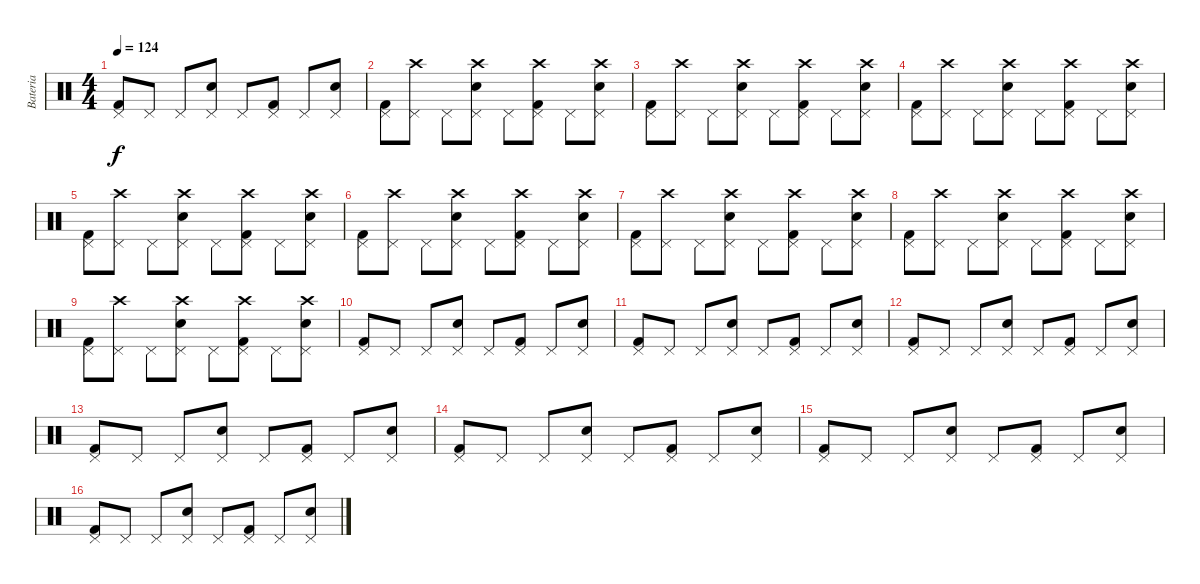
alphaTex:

\track ("Bateria" "Bateria") {instrument percussion}
\staff {score}
\articulation defaults
\ts (4 4)
\tempo 124
\clef neutral
\ks c
("Pedal Hi-Hat (hit)" "Kick (hit) 2").8{dy f} "Pedal Hi-Hat (hit)".8 "Pedal Hi-Hat (hit)".8 ("Pedal Hi-Hat (hit)" "Electric Snare (hit)").8 "Pedal Hi-Hat (hit)".8 ("Pedal Hi-Hat (hit)" "Kick (hit) 2").8 "Pedal Hi-Hat (hit)".8 ("Pedal Hi-Hat (hit)" "Electric Snare (hit)").8 |
("Pedal Hi-Hat (hit)" "Kick (hit) 2").8 ("Pedal Hi-Hat (hit)" "Crash high (hit)").8 "Pedal Hi-Hat (hit)".8 ("Pedal Hi-Hat (hit)" "Electric Snare (hit)" "Crash high (hit)").8 "Pedal Hi-Hat (hit)".8 ("Pedal Hi-Hat (hit)" "Kick (hit) 2" "Crash high (hit)").8 "Pedal Hi-Hat (hit)".8 ("Pedal Hi-Hat (hit)" "Electric Snare (hit)" "Crash high (hit)").8 |
("Pedal Hi-Hat (hit)" "Kick (hit) 2").8 ("Pedal Hi-Hat (hit)" "Crash high (hit)").8 "Pedal Hi-Hat (hit)".8 ("Pedal Hi-Hat (hit)" "Electric Snare (hit)" "Crash high (hit)").8 "Pedal Hi-Hat (hit)".8 ("Pedal Hi-Hat (hit)" "Kick (hit) 2" "Crash high (hit)").8 "Pedal Hi-Hat (hit)".8 ("Pedal Hi-Hat (hit)" "Electric Snare (hit)" "Crash high (hit)").8 |
("Pedal Hi-Hat (hit)" "Kick (hit) 2").8 ("Pedal Hi-Hat (hit)" "Crash high (hit)").8 "Pedal Hi-Hat (hit)".8 ("Pedal Hi-Hat (hit)" "Electric Snare (hit)" "Crash high (hit)").8 "Pedal Hi-Hat (hit)".8 ("Pedal Hi-Hat (hit)" "Kick (hit) 2" "Crash high (hit)").8 "Pedal Hi-Hat (hit)".8 ("Pedal Hi-Hat (hit)" "Electric Snare (hit)" "Crash high (hit)").8 |
("Pedal Hi-Hat (hit)" "Kick (hit) 2").8 ("Pedal Hi-Hat (hit)" "Crash high (hit)").8 "Pedal Hi-Hat (hit)".8 ("Pedal Hi-Hat (hit)" "Electric Snare (hit)" "Crash high (hit)").8 "Pedal Hi-Hat (hit)".8 ("Pedal Hi-Hat (hit)" "Kick (hit) 2" "Crash high (hit)").8 "Pedal Hi-Hat (hit)".8 ("Pedal Hi-Hat (hit)" "Electric Snare (hit)" "Crash high (hit)").8 |
("Pedal Hi-Hat (hit)" "Kick (hit) 2").8 ("Pedal Hi-Hat (hit)" "Crash high (hit)").8 "Pedal Hi-Hat (hit)".8 ("Pedal Hi-Hat (hit)" "Electric Snare (hit)" "Crash high (hit)").8 "Pedal Hi-Hat (hit)".8 ("Pedal Hi-Hat (hit)" "Kick (hit) 2" "Crash high (hit)").8 "Pedal Hi-Hat (hit)".8 ("Pedal Hi-Hat (hit)" "Electric Snare (hit)" "Crash high (hit)").8 |
("Pedal Hi-Hat (hit)" "Kick (hit) 2").8 ("Pedal Hi-Hat (hit)" "Crash high (hit)").8 "Pedal Hi-Hat (hit)".8 ("Pedal Hi-Hat (hit)" "Electric Snare (hit)" "Crash high (hit)").8 "Pedal Hi-Hat (hit)".8 ("Pedal Hi-Hat (hit)" "Kick (hit) 2" "Crash high (hit)").8 "Pedal Hi-Hat (hit)".8 ("Pedal Hi-Hat (hit)" "Electric Snare (hit)" "Crash high (hit)").8 |
("Pedal Hi-Hat (hit)" "Kick (hit) 2").8 ("Pedal Hi-Hat (hit)" "Crash high (hit)").8 "Pedal Hi-Hat (hit)".8 ("Pedal Hi-Hat (hit)" "Electric Snare (hit)" "Crash high (hit)").8 "Pedal Hi-Hat (hit)".8 ("Pedal Hi-Hat (hit)" "Kick (hit) 2" "Crash high (hit)").8 "Pedal Hi-Hat (hit)".8 ("Pedal Hi-Hat (hit)" "Electric Snare (hit)" "Crash high (hit)").8 |
("Pedal Hi-Hat (hit)" "Kick (hit) 2").8 ("Pedal Hi-Hat (hit)" "Crash high (hit)").8 "Pedal Hi-Hat (hit)".8 ("Pedal Hi-Hat (hit)" "Electric Snare (hit)" "Crash high (hit)").8 "Pedal Hi-Hat (hit)".8 ("Pedal Hi-Hat (hit)" "Kick (hit) 2" "Crash high (hit)").8 "Pedal Hi-Hat (hit)".8 ("Pedal Hi-Hat (hit)" "Electric Snare (hit)" "Crash high (hit)").8 |
("Pedal Hi-Hat (hit)" "Kick (hit) 2").8 "Pedal Hi-Hat (hit)".8 "Pedal Hi-Hat (hit)".8 ("Pedal Hi-Hat (hit)" "Electric Snare (hit)").8 "Pedal Hi-Hat (hit)".8 ("Pedal Hi-Hat (hit)" "Kick (hit) 2").8 "Pedal Hi-Hat (hit)".8 ("Pedal Hi-Hat (hit)" "Electric Snare (hit)").8 |
("Pedal Hi-Hat (hit)" "Kick (hit) 2").8 "Pedal Hi-Hat (hit)".8 "Pedal Hi-Hat (hit)".8 ("Pedal Hi-Hat (hit)" "Electric Snare (hit)").8 "Pedal Hi-Hat (hit)".8 ("Pedal Hi-Hat (hit)" "Kick (hit) 2").8 "Pedal Hi-Hat (hit)".8 ("Pedal Hi-Hat (hit)" "Electric Snare (hit)").8 |
("Pedal Hi-Hat (hit)" "Kick (hit) 2").8 "Pedal Hi-Hat (hit)".8 "Pedal Hi-Hat (hit)".8 ("Pedal Hi-Hat (hit)" "Electric Snare (hit)").8 "Pedal Hi-Hat (hit)".8 ("Pedal Hi-Hat (hit)" "Kick (hit) 2").8 "Pedal Hi-Hat (hit)".8 ("Pedal Hi-Hat (hit)" "Electric Snare (hit)").8 |
("Pedal Hi-Hat (hit)" "Kick (hit) 2").8 "Pedal Hi-Hat (hit)".8 "Pedal Hi-Hat (hit)".8 ("Pedal Hi-Hat (hit)" "Electric Snare (hit)").8 "Pedal Hi-Hat (hit)".8 ("Pedal Hi-Hat (hit)" "Kick (hit) 2").8 "Pedal Hi-Hat (hit)".8 ("Pedal Hi-Hat (hit)" "Electric Snare (hit)").8 |
("Pedal Hi-Hat (hit)" "Kick (hit) 2").8 "Pedal Hi-Hat (hit)".8 "Pedal Hi-Hat (hit)".8 ("Pedal Hi-Hat (hit)" "Electric Snare (hit)").8 "Pedal Hi-Hat (hit)".8 ("Pedal Hi-Hat (hit)" "Kick (hit) 2").8 "Pedal Hi-Hat (hit)".8 ("Pedal Hi-Hat (hit)" "Electric Snare (hit)").8 |
("Pedal Hi-Hat (hit)" "Kick (hit) 2").8 "Pedal Hi-Hat (hit)".8 "Pedal Hi-Hat (hit)".8 ("Pedal Hi-Hat (hit)" "Electric Snare (hit)").8 "Pedal Hi-Hat (hit)".8 ("Pedal Hi-Hat (hit)" "Kick (hit) 2").8 "Pedal Hi-Hat (hit)".8 ("Pedal Hi-Hat (hit)" "Electric Snare (hit)").8 |
("Pedal Hi-Hat (hit)" "Kick (hit) 2").8 "Pedal Hi-Hat (hit)".8 "Pedal Hi-Hat (hit)".8 ("Pedal Hi-Hat (hit)" "Electric Snare (hit)").8 "Pedal Hi-Hat (hit)".8 ("Pedal Hi-Hat (hit)" "Kick (hit) 2").8 "Pedal Hi-Hat (hit)".8 ("Pedal Hi-Hat (hit)" "Electric Snare (hit)").8
